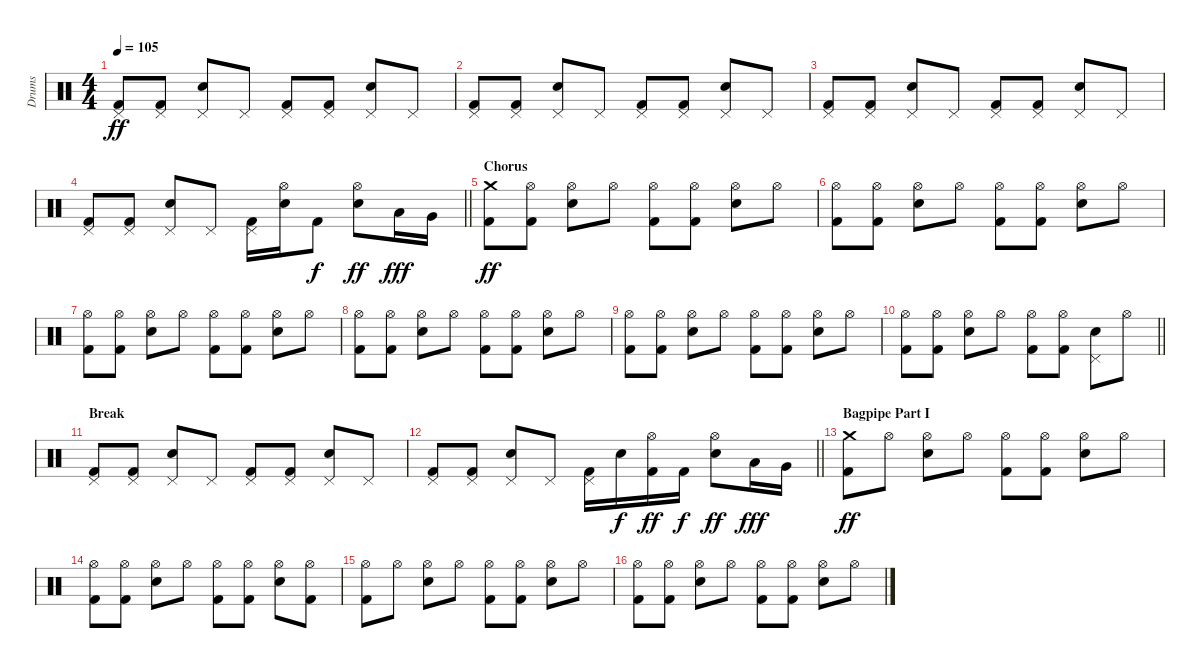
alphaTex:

\track ("Drums" "Drums") {instrument percussion}
\staff {score}
\articulation defaults
\ts (4 4)
\tempo 105
\clef neutral
\ks c
("Pedal Hi-Hat (hit)" "Kick (hit) 2").8{dy ff} ("Pedal Hi-Hat (hit)" "Kick (hit) 2").8 ("Pedal Hi-Hat (hit)" "Electric Snare (hit)").8 "Pedal Hi-Hat (hit)".8 ("Pedal Hi-Hat (hit)" "Kick (hit) 2").8 ("Pedal Hi-Hat (hit)" "Kick (hit) 2").8 ("Pedal Hi-Hat (hit)" "Electric Snare (hit)").8 "Pedal Hi-Hat (hit)".8 |
("Pedal Hi-Hat (hit)" "Kick (hit) 2").8 ("Pedal Hi-Hat (hit)" "Kick (hit) 2").8 ("Pedal Hi-Hat (hit)" "Electric Snare (hit)").8 "Pedal Hi-Hat (hit)".8 ("Pedal Hi-Hat (hit)" "Kick (hit) 2").8 ("Pedal Hi-Hat (hit)" "Kick (hit) 2").8 ("Pedal Hi-Hat (hit)" "Electric Snare (hit)").8 "Pedal Hi-Hat (hit)".8 |
("Pedal Hi-Hat (hit)" "Kick (hit) 2").8 ("Pedal Hi-Hat (hit)" "Kick (hit) 2").8 ("Pedal Hi-Hat (hit)" "Electric Snare (hit)").8 "Pedal Hi-Hat (hit)".8 ("Pedal Hi-Hat (hit)" "Kick (hit) 2").8 ("Pedal Hi-Hat (hit)" "Kick (hit) 2").8 ("Pedal Hi-Hat (hit)" "Electric Snare (hit)").8 "Pedal Hi-Hat (hit)".8 |
\barLineRight lightlight
("Pedal Hi-Hat (hit)" "Kick (hit) 2").8 ("Pedal Hi-Hat (hit)" "Kick (hit) 2").8 ("Pedal Hi-Hat (hit)" "Electric Snare (hit)").8 "Pedal Hi-Hat (hit)".8 ("Pedal Hi-Hat (hit)" "Kick (hit) 2").16 ("Hi-Hat (open)" "Electric Snare (hit)").16 "Kick (hit) 2".8{dy f} ("Hi-Hat (open)" "Electric Snare (hit)").8{dy ff} "Low Tom (hit)".16{dy fff} "Very Low Tom (hit)".16 |
\section ("" "Chorus")
("Crash medium (hit)" "Kick (hit) 2").8{dy ff} ("Hi-Hat (open)" "Kick (hit) 2").8 ("Hi-Hat (open)" "Electric Snare (hit)").8 "Hi-Hat (open)".8 ("Hi-Hat (open)" "Kick (hit) 2").8 ("Hi-Hat (open)" "Kick (hit) 2").8 ("Hi-Hat (open)" "Electric Snare (hit)").8 "Hi-Hat (open)".8 |
("Hi-Hat (open)" "Kick (hit) 2").8 ("Hi-Hat (open)" "Kick (hit) 2").8 ("Hi-Hat (open)" "Electric Snare (hit)").8 "Hi-Hat (open)".8 ("Hi-Hat (open)" "Kick (hit) 2").8 ("Hi-Hat (open)" "Kick (hit) 2").8 ("Hi-Hat (open)" "Electric Snare (hit)").8 "Hi-Hat (open)".8 |
("Hi-Hat (open)" "Kick (hit) 2").8 ("Hi-Hat (open)" "Kick (hit) 2").8 ("Hi-Hat (open)" "Electric Snare (hit)").8 "Hi-Hat (open)".8 ("Hi-Hat (open)" "Kick (hit) 2").8 ("Hi-Hat (open)" "Kick (hit) 2").8 ("Hi-Hat (open)" "Electric Snare (hit)").8 "Hi-Hat (open)".8 |
("Hi-Hat (open)" "Kick (hit) 2").8 ("Hi-Hat (open)" "Kick (hit) 2").8 ("Hi-Hat (open)" "Electric Snare (hit)").8 "Hi-Hat (open)".8 ("Hi-Hat (open)" "Kick (hit) 2").8 ("Hi-Hat (open)" "Kick (hit) 2").8 ("Hi-Hat (open)" "Electric Snare (hit)").8 "Hi-Hat (open)".8 |
("Hi-Hat (open)" "Kick (hit) 2").8 ("Hi-Hat (open)" "Kick (hit) 2").8 ("Hi-Hat (open)" "Electric Snare (hit)").8 "Hi-Hat (open)".8 ("Hi-Hat (open)" "Kick (hit) 2").8 ("Hi-Hat (open)" "Kick (hit) 2").8 ("Hi-Hat (open)" "Electric Snare (hit)").8 "Hi-Hat (open)".8 |
\barLineRight lightlight
("Hi-Hat (open)" "Kick (hit) 2").8 ("Hi-Hat (open)" "Kick (hit) 2").8 ("Hi-Hat (open)" "Electric Snare (hit)").8 "Hi-Hat (open)".8 ("Hi-Hat (open)" "Kick (hit) 2").8 ("Hi-Hat (open)" "Kick (hit) 2").8 ("Pedal Hi-Hat (hit)" "Electric Snare (hit)").8 "Hi-Hat (open)".8 |
\section ("" "Break")
("Pedal Hi-Hat (hit)" "Kick (hit) 2").8 ("Pedal Hi-Hat (hit)" "Kick (hit) 2").8 ("Pedal Hi-Hat (hit)" "Electric Snare (hit)").8 "Pedal Hi-Hat (hit)".8 ("Pedal Hi-Hat (hit)" "Kick (hit) 2").8 ("Pedal Hi-Hat (hit)" "Kick (hit) 2").8 ("Pedal Hi-Hat (hit)" "Electric Snare (hit)").8 "Pedal Hi-Hat (hit)".8 |
\barLineRight lightlight
("Pedal Hi-Hat (hit)" "Kick (hit) 2").8 ("Pedal Hi-Hat (hit)" "Kick (hit) 2").8 ("Pedal Hi-Hat (hit)" "Electric Snare (hit)").8 "Pedal Hi-Hat (hit)".8 ("Pedal Hi-Hat (hit)" "Kick (hit) 2").16 "Electric Snare (hit)".16{dy f} ("Hi-Hat (open)" "Kick (hit) 2").16{dy ff} "Kick (hit) 2".16{dy f} ("Hi-Hat (open)" "Electric Snare (hit)").8{dy ff} "Low Tom (hit)".16{dy fff} "Very Low Tom (hit)".16 |
\section ("" "Bagpipe Part I")
("Crash medium (hit)" "Kick (hit) 2").8{dy ff} "Hi-Hat (open)".8 ("Hi-Hat (open)" "Electric Snare (hit)").8 "Hi-Hat (open)".8 ("Hi-Hat (open)" "Kick (hit) 2").8 ("Hi-Hat (open)" "Kick (hit) 2").8 ("Hi-Hat (open)" "Electric Snare (hit)").8 "Hi-Hat (open)".8 |
("Hi-Hat (open)" "Kick (hit) 2").8 ("Hi-Hat (open)" "Kick (hit) 2").8 ("Hi-Hat (open)" "Electric Snare (hit)").8 "Hi-Hat (open)".8 ("Hi-Hat (open)" "Kick (hit) 2").8 ("Hi-Hat (open)" "Kick (hit) 2").8 ("Hi-Hat (open)" "Electric Snare (hit)").8 ("Hi-Hat (open)" "Kick (hit) 2").8 |
("Hi-Hat (open)" "Kick (hit) 2").8 "Hi-Hat (open)".8 ("Hi-Hat (open)" "Electric Snare (hit)").8 "Hi-Hat (open)".8 ("Hi-Hat (open)" "Kick (hit) 2").8 ("Hi-Hat (open)" "Kick (hit) 2").8 ("Hi-Hat (open)" "Electric Snare (hit)").8 "Hi-Hat (open)".8 |
("Hi-Hat (open)" "Kick (hit) 2").8 ("Hi-Hat (open)" "Kick (hit) 2").8 ("Hi-Hat (open)" "Electric Snare (hit)").8 "Hi-Hat (open)".8 ("Hi-Hat (open)" "Kick (hit) 2").8 ("Hi-Hat (open)" "Kick (hit) 2").8 ("Hi-Hat (open)" "Electric Snare (hit)").8 "Hi-Hat (open)".8
